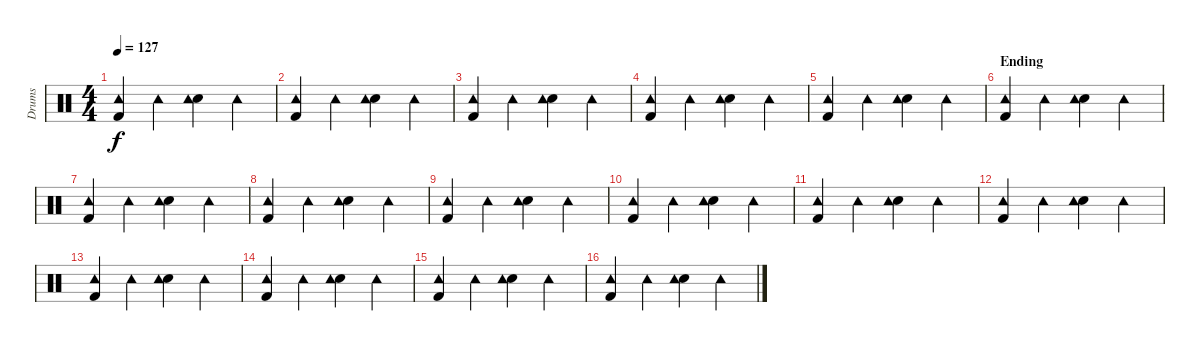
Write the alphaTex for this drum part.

\track ("Drums" "Drums") {instrument percussion}
\staff {score}
\articulation defaults
\ts (4 4)
\tempo 127
\clef neutral
\ks c
("Kick (hit) 2" "Tambourine (hit)").4{dy f} "Tambourine (hit)".4 ("Snare (hit) 2" "Tambourine (hit)").4 "Tambourine (hit)".4 |
("Kick (hit) 2" "Tambourine (hit)").4 "Tambourine (hit)".4 ("Snare (hit) 2" "Tambourine (hit)").4 "Tambourine (hit)".4 |
("Kick (hit) 2" "Tambourine (hit)").4 "Tambourine (hit)".4 ("Snare (hit) 2" "Tambourine (hit)").4 "Tambourine (hit)".4 |
("Kick (hit) 2" "Tambourine (hit)").4 "Tambourine (hit)".4 ("Snare (hit) 2" "Tambourine (hit)").4 "Tambourine (hit)".4 |
("Kick (hit) 2" "Tambourine (hit)").4 "Tambourine (hit)".4 ("Snare (hit) 2" "Tambourine (hit)").4 "Tambourine (hit)".4 |
\section ("" "Ending")
("Kick (hit) 2" "Tambourine (hit)").4 "Tambourine (hit)".4 ("Snare (hit) 2" "Tambourine (hit)").4 "Tambourine (hit)".4 |
("Kick (hit) 2" "Tambourine (hit)").4 "Tambourine (hit)".4 ("Snare (hit) 2" "Tambourine (hit)").4 "Tambourine (hit)".4 |
("Kick (hit) 2" "Tambourine (hit)").4 "Tambourine (hit)".4 ("Snare (hit) 2" "Tambourine (hit)").4 "Tambourine (hit)".4 |
("Kick (hit) 2" "Tambourine (hit)").4 "Tambourine (hit)".4 ("Snare (hit) 2" "Tambourine (hit)").4 "Tambourine (hit)".4 |
("Kick (hit) 2" "Tambourine (hit)").4 "Tambourine (hit)".4 ("Snare (hit) 2" "Tambourine (hit)").4 "Tambourine (hit)".4 |
("Kick (hit) 2" "Tambourine (hit)").4 "Tambourine (hit)".4 ("Snare (hit) 2" "Tambourine (hit)").4 "Tambourine (hit)".4 |
("Kick (hit) 2" "Tambourine (hit)").4 "Tambourine (hit)".4 ("Snare (hit) 2" "Tambourine (hit)").4 "Tambourine (hit)".4 |
("Kick (hit) 2" "Tambourine (hit)").4 "Tambourine (hit)".4 ("Snare (hit) 2" "Tambourine (hit)").4 "Tambourine (hit)".4 |
("Kick (hit) 2" "Tambourine (hit)").4 "Tambourine (hit)".4 ("Snare (hit) 2" "Tambourine (hit)").4 "Tambourine (hit)".4 |
("Kick (hit) 2" "Tambourine (hit)").4 "Tambourine (hit)".4 ("Snare (hit) 2" "Tambourine (hit)").4 "Tambourine (hit)".4 |
("Kick (hit) 2" "Tambourine (hit)").4 "Tambourine (hit)".4 ("Snare (hit) 2" "Tambourine (hit)").4 "Tambourine (hit)".4
